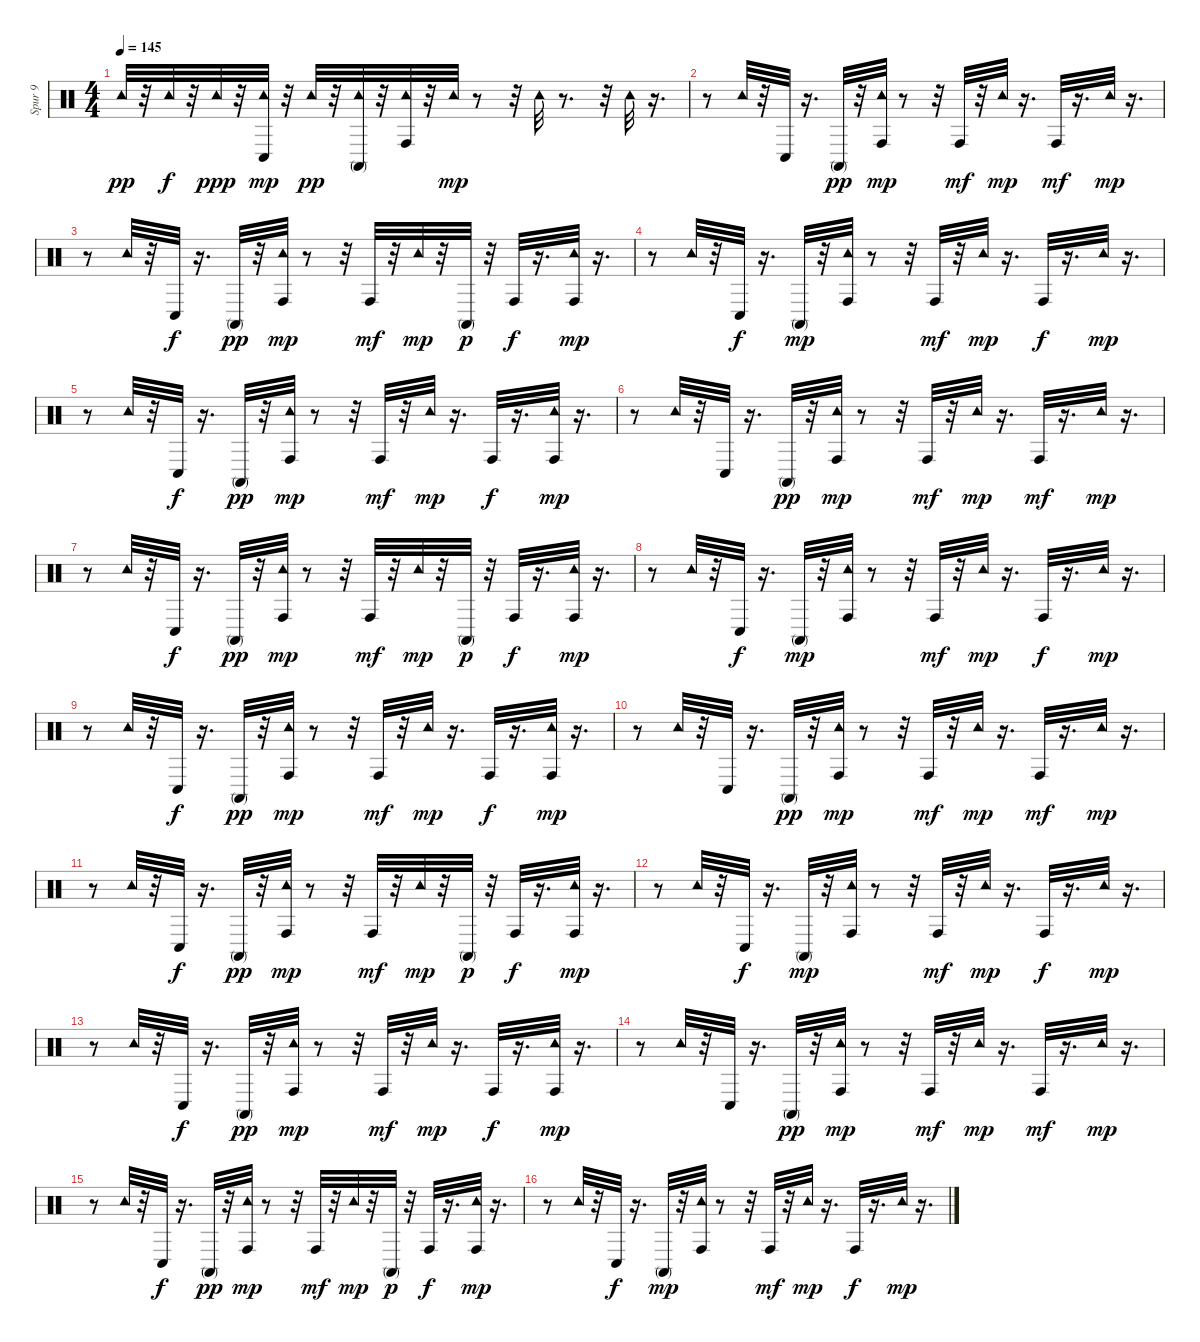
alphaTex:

\track ("Spur 9" "Spur 9") {instrument percussion}
\staff {score}
\articulation defaults
\ts (4 4)
\tempo 145
\clef neutral
\ks c "Tambourine (hit)".32{dy pp}
r.32 "Tambourine (hit)".32{dy f} r.32 "Tambourine (hit)".32{dy ppp} r.32 ("Tambourine (hit)" "Conga low (hit)").32{dy mp} r.32 "Tambourine (hit)".32{dy pp} r.32 ("Tambourine (hit)" "Conga high (mute)").32 r.32 ("Conga high (hit)" "Tambourine (hit)").32 r.32 "Tambourine (hit)".32{dy mp} r.8 r.32 "Tambourine (hit)".32 r.8{d} r.32 "Tambourine (hit)".32 r.16{d} |
r.8 "Tambourine (hit)".32 r.32 "Conga low (hit)".32 r.16{d} "Conga high (mute)".32{dy pp} r.32 ("Conga high (hit)" "Tambourine (hit)").32{dy mp} r.8 r.32 "Conga high (hit)".32{dy mf} r.32 "Tambourine (hit)".32{dy mp} r.16{d} "Conga high (hit)".32{dy mf} r.16{d} "Tambourine (hit)".32{dy mp} r.16{d} |
r.8 "Tambourine (hit)".32 r.32 "Conga low (hit)".32{dy f} r.16{d} "Conga high (mute)".32{dy pp} r.32 ("Conga high (hit)" "Tambourine (hit)").32{dy mp} r.8 r.32 "Conga high (hit)".32{dy mf} r.32 "Tambourine (hit)".32{dy mp} r.32 "Conga high (mute)".32{dy p} r.32 "Conga high (hit)".32{dy f} r.16{d} ("Conga high (hit)" "Tambourine (hit)").32{dy mp} r.16{d} |
r.8 "Tambourine (hit)".32 r.32 "Conga low (hit)".32{dy f} r.16{d} "Conga high (mute)".32{dy mp} r.32 ("Conga high (hit)" "Tambourine (hit)").32 r.8 r.32 "Conga high (hit)".32{dy mf} r.32 "Tambourine (hit)".32{dy mp} r.16{d} "Conga high (hit)".32{dy f} r.16{d} "Tambourine (hit)".32{dy mp} r.16{d} |
r.8 "Tambourine (hit)".32 r.32 "Conga low (hit)".32{dy f} r.16{d} "Conga high (mute)".32{dy pp} r.32 ("Conga high (hit)" "Tambourine (hit)").32{dy mp} r.8 r.32 "Conga high (hit)".32{dy mf} r.32 "Tambourine (hit)".32{dy mp} r.16{d} "Conga high (hit)".32{dy f} r.16{d} ("Conga high (hit)" "Tambourine (hit)").32{dy mp} r.16{d} |
r.8 "Tambourine (hit)".32 r.32 "Conga low (hit)".32 r.16{d} "Conga high (mute)".32{dy pp} r.32 ("Conga high (hit)" "Tambourine (hit)").32{dy mp} r.8 r.32 "Conga high (hit)".32{dy mf} r.32 "Tambourine (hit)".32{dy mp} r.16{d} "Conga high (hit)".32{dy mf} r.16{d} "Tambourine (hit)".32{dy mp} r.16{d} |
r.8 "Tambourine (hit)".32 r.32 "Conga low (hit)".32{dy f} r.16{d} "Conga high (mute)".32{dy pp} r.32 ("Conga high (hit)" "Tambourine (hit)").32{dy mp} r.8 r.32 "Conga high (hit)".32{dy mf} r.32 "Tambourine (hit)".32{dy mp} r.32 "Conga high (mute)".32{dy p} r.32 "Conga high (hit)".32{dy f} r.16{d} ("Conga high (hit)" "Tambourine (hit)").32{dy mp} r.16{d} |
r.8 "Tambourine (hit)".32 r.32 "Conga low (hit)".32{dy f} r.16{d} "Conga high (mute)".32{dy mp} r.32 ("Conga high (hit)" "Tambourine (hit)").32 r.8 r.32 "Conga high (hit)".32{dy mf} r.32 "Tambourine (hit)".32{dy mp} r.16{d} "Conga high (hit)".32{dy f} r.16{d} "Tambourine (hit)".32{dy mp} r.16{d} |
r.8 "Tambourine (hit)".32 r.32 "Conga low (hit)".32{dy f} r.16{d} "Conga high (mute)".32{dy pp} r.32 ("Conga high (hit)" "Tambourine (hit)").32{dy mp} r.8 r.32 "Conga high (hit)".32{dy mf} r.32 "Tambourine (hit)".32{dy mp} r.16{d} "Conga high (hit)".32{dy f} r.16{d} ("Conga high (hit)" "Tambourine (hit)").32{dy mp} r.16{d} |
r.8 "Tambourine (hit)".32 r.32 "Conga low (hit)".32 r.16{d} "Conga high (mute)".32{dy pp} r.32 ("Conga high (hit)" "Tambourine (hit)").32{dy mp} r.8 r.32 "Conga high (hit)".32{dy mf} r.32 "Tambourine (hit)".32{dy mp} r.16{d} "Conga high (hit)".32{dy mf} r.16{d} "Tambourine (hit)".32{dy mp} r.16{d} |
r.8 "Tambourine (hit)".32 r.32 "Conga low (hit)".32{dy f} r.16{d} "Conga high (mute)".32{dy pp} r.32 ("Conga high (hit)" "Tambourine (hit)").32{dy mp} r.8 r.32 "Conga high (hit)".32{dy mf} r.32 "Tambourine (hit)".32{dy mp} r.32 "Conga high (mute)".32{dy p} r.32 "Conga high (hit)".32{dy f} r.16{d} ("Conga high (hit)" "Tambourine (hit)").32{dy mp} r.16{d} |
r.8 "Tambourine (hit)".32 r.32 "Conga low (hit)".32{dy f} r.16{d} "Conga high (mute)".32{dy mp} r.32 ("Conga high (hit)" "Tambourine (hit)").32 r.8 r.32 "Conga high (hit)".32{dy mf} r.32 "Tambourine (hit)".32{dy mp} r.16{d} "Conga high (hit)".32{dy f} r.16{d} "Tambourine (hit)".32{dy mp} r.16{d} |
r.8 "Tambourine (hit)".32 r.32 "Conga low (hit)".32{dy f} r.16{d} "Conga high (mute)".32{dy pp} r.32 ("Conga high (hit)" "Tambourine (hit)").32{dy mp} r.8 r.32 "Conga high (hit)".32{dy mf} r.32 "Tambourine (hit)".32{dy mp} r.16{d} "Conga high (hit)".32{dy f} r.16{d} ("Conga high (hit)" "Tambourine (hit)").32{dy mp} r.16{d} |
r.8 "Tambourine (hit)".32 r.32 "Conga low (hit)".32 r.16{d} "Conga high (mute)".32{dy pp} r.32 ("Conga high (hit)" "Tambourine (hit)").32{dy mp} r.8 r.32 "Conga high (hit)".32{dy mf} r.32 "Tambourine (hit)".32{dy mp} r.16{d} "Conga high (hit)".32{dy mf} r.16{d} "Tambourine (hit)".32{dy mp} r.16{d} |
r.8 "Tambourine (hit)".32 r.32 "Conga low (hit)".32{dy f} r.16{d} "Conga high (mute)".32{dy pp} r.32 ("Conga high (hit)" "Tambourine (hit)").32{dy mp} r.8 r.32 "Conga high (hit)".32{dy mf} r.32 "Tambourine (hit)".32{dy mp} r.32 "Conga high (mute)".32{dy p} r.32 "Conga high (hit)".32{dy f} r.16{d} ("Conga high (hit)" "Tambourine (hit)").32{dy mp} r.16{d} |
r.8 "Tambourine (hit)".32 r.32 "Conga low (hit)".32{dy f} r.16{d} "Conga high (mute)".32{dy mp} r.32 ("Conga high (hit)" "Tambourine (hit)").32 r.8 r.32 "Conga high (hit)".32{dy mf} r.32 "Tambourine (hit)".32{dy mp} r.16{d} "Conga high (hit)".32{dy f} r.16{d} "Tambourine (hit)".32{dy mp} r.16{d}
